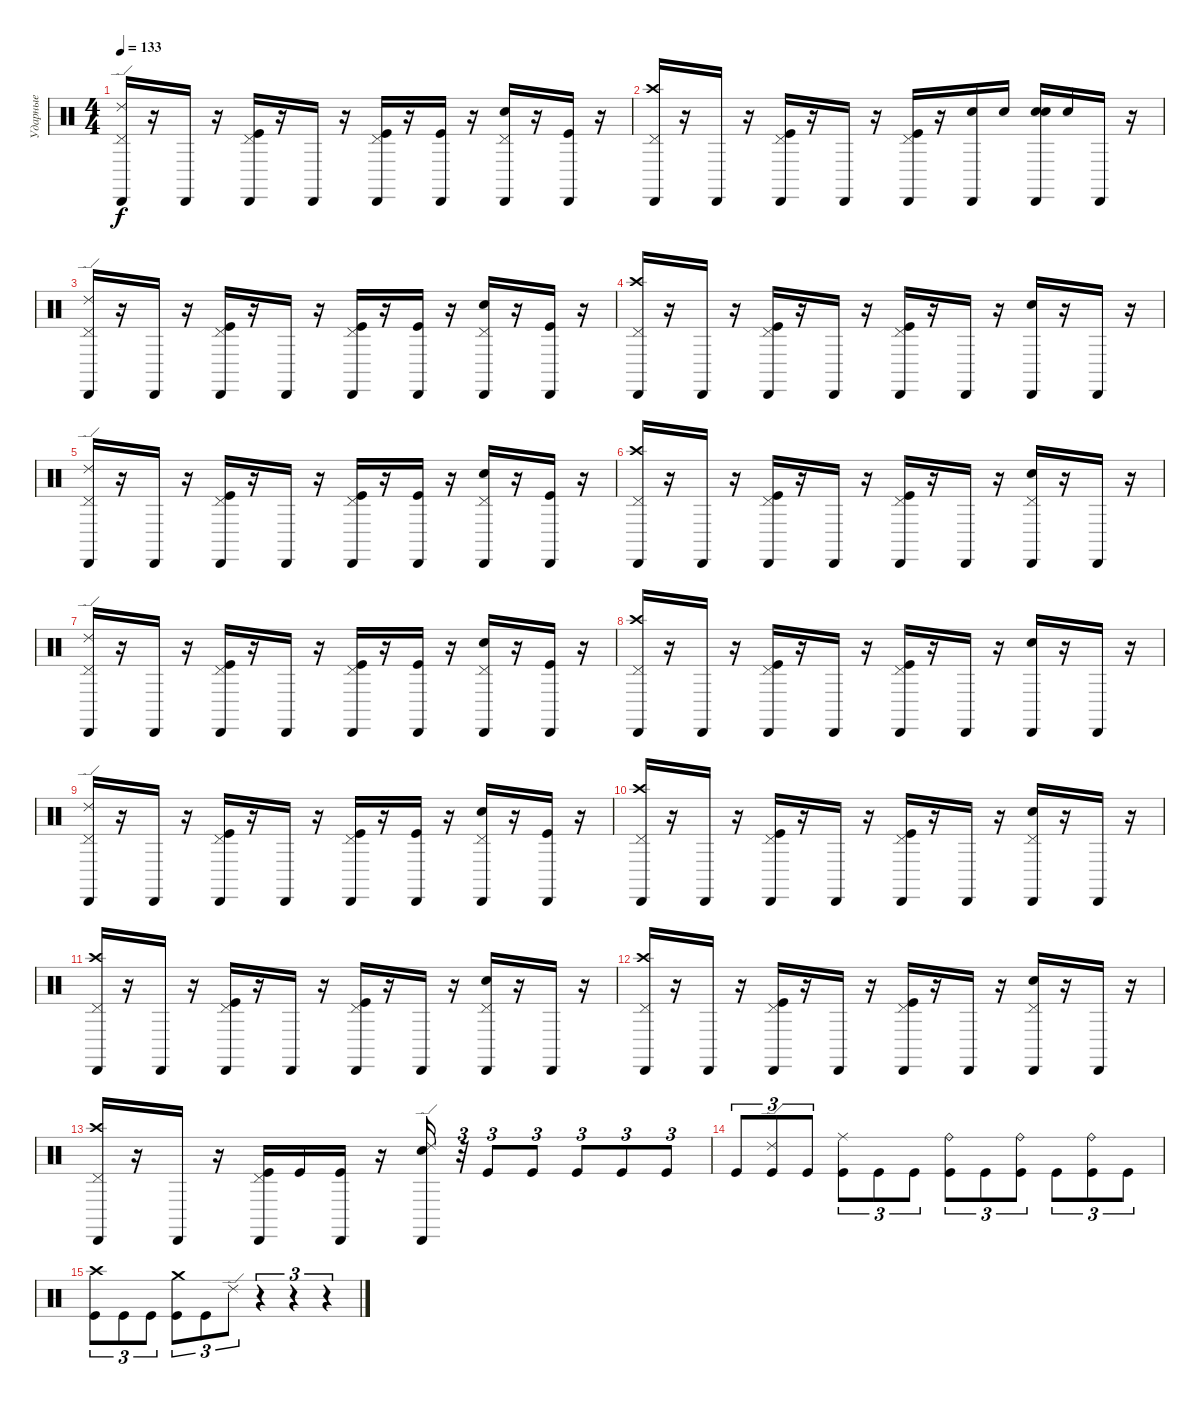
\track ("Ударные" "Ударные") {instrument percussion}
\staff {score}
\articulation defaults
\ts (4 4)
\tempo 133
\clef neutral
\ks c
("Cabasa (hit)" "Pedal Hi-Hat (hit)" "Ride (edge) 2").16{dy f} r.16 "Cabasa (hit)".16 r.16 ("Cabasa (hit)" "Pedal Hi-Hat (hit)" "Kick (hit)").16 r.16 "Cabasa (hit)".16 r.16 ("Cabasa (hit)" "Pedal Hi-Hat (hit)" "Kick (hit)").16 r.16 ("Cabasa (hit)" "Kick (hit)").16 r.16 ("Cabasa (hit)" "Pedal Hi-Hat (hit)" "Snare (hit) 2").16 r.16 ("Cabasa (hit)" "Kick (hit)").16 r.16 |
("Cabasa (hit)" "Pedal Hi-Hat (hit)" "Crash high (hit)").16 r.16 "Cabasa (hit)".16 r.16 ("Cabasa (hit)" "Pedal Hi-Hat (hit)" "Kick (hit)").16 r.16 "Cabasa (hit)".16 r.16 ("Cabasa (hit)" "Pedal Hi-Hat (hit)" "Kick (hit)").16 r.16 ("Cabasa (hit)" "Snare (hit) 2").16 "Snare (hit) 2".16 ("Cabasa (hit)" "Snare (hit) 2" "Electric Snare (hit)").16 "Snare (hit) 2".16 "Cabasa (hit)".16 r.16 |
("Cabasa (hit)" "Pedal Hi-Hat (hit)" "Ride (edge) 2").16 r.16 "Cabasa (hit)".16 r.16 ("Cabasa (hit)" "Pedal Hi-Hat (hit)" "Kick (hit)").16 r.16 "Cabasa (hit)".16 r.16 ("Cabasa (hit)" "Pedal Hi-Hat (hit)" "Kick (hit)").16 r.16 ("Cabasa (hit)" "Kick (hit)").16 r.16 ("Cabasa (hit)" "Pedal Hi-Hat (hit)" "Snare (hit) 2").16 r.16 ("Cabasa (hit)" "Kick (hit)").16 r.16 |
("Cabasa (hit)" "Pedal Hi-Hat (hit)" "Crash high (hit)").16 r.16 "Cabasa (hit)".16 r.16 ("Cabasa (hit)" "Pedal Hi-Hat (hit)" "Kick (hit)").16 r.16 "Cabasa (hit)".16 r.16 ("Cabasa (hit)" "Pedal Hi-Hat (hit)" "Kick (hit)").16 r.16 "Cabasa (hit)".16 r.16 ("Cabasa (hit)" "Electric Snare (hit)").16 r.16 "Cabasa (hit)".16 r.16 |
("Cabasa (hit)" "Pedal Hi-Hat (hit)" "Ride (edge) 2").16 r.16 "Cabasa (hit)".16 r.16 ("Cabasa (hit)" "Pedal Hi-Hat (hit)" "Kick (hit)").16 r.16 "Cabasa (hit)".16 r.16 ("Cabasa (hit)" "Pedal Hi-Hat (hit)" "Kick (hit)").16 r.16 ("Cabasa (hit)" "Kick (hit)").16 r.16 ("Cabasa (hit)" "Pedal Hi-Hat (hit)" "Snare (hit) 2").16 r.16 ("Cabasa (hit)" "Kick (hit)").16 r.16 |
("Cabasa (hit)" "Pedal Hi-Hat (hit)" "Crash high (hit)").16 r.16 "Cabasa (hit)".16 r.16 ("Cabasa (hit)" "Pedal Hi-Hat (hit)" "Kick (hit)").16 r.16 "Cabasa (hit)".16 r.16 ("Cabasa (hit)" "Pedal Hi-Hat (hit)" "Kick (hit)").16 r.16 "Cabasa (hit)".16 r.16 ("Cabasa (hit)" "Pedal Hi-Hat (hit)" "Electric Snare (hit)").16 r.16 "Cabasa (hit)".16 r.16 |
("Cabasa (hit)" "Pedal Hi-Hat (hit)" "Ride (edge) 2").16 r.16 "Cabasa (hit)".16 r.16 ("Cabasa (hit)" "Pedal Hi-Hat (hit)" "Kick (hit)").16 r.16 "Cabasa (hit)".16 r.16 ("Cabasa (hit)" "Pedal Hi-Hat (hit)" "Kick (hit)").16 r.16 ("Cabasa (hit)" "Kick (hit)").16 r.16 ("Cabasa (hit)" "Pedal Hi-Hat (hit)" "Snare (hit) 2").16 r.16 ("Cabasa (hit)" "Kick (hit)").16 r.16 |
("Cabasa (hit)" "Pedal Hi-Hat (hit)" "Crash high (hit)").16 r.16 "Cabasa (hit)".16 r.16 ("Cabasa (hit)" "Pedal Hi-Hat (hit)" "Kick (hit)").16 r.16 "Cabasa (hit)".16 r.16 ("Cabasa (hit)" "Pedal Hi-Hat (hit)" "Kick (hit)").16 r.16 "Cabasa (hit)".16 r.16 ("Cabasa (hit)" "Electric Snare (hit)").16 r.16 "Cabasa (hit)".16 r.16 |
("Cabasa (hit)" "Pedal Hi-Hat (hit)" "Ride (edge) 2").16 r.16 "Cabasa (hit)".16 r.16 ("Cabasa (hit)" "Pedal Hi-Hat (hit)" "Kick (hit)").16 r.16 "Cabasa (hit)".16 r.16 ("Cabasa (hit)" "Pedal Hi-Hat (hit)" "Kick (hit)").16 r.16 ("Cabasa (hit)" "Kick (hit)").16 r.16 ("Cabasa (hit)" "Pedal Hi-Hat (hit)" "Snare (hit) 2").16 r.16 ("Cabasa (hit)" "Kick (hit)").16 r.16 |
("Cabasa (hit)" "Pedal Hi-Hat (hit)" "Crash high (hit)").16 r.16 "Cabasa (hit)".16 r.16 ("Cabasa (hit)" "Pedal Hi-Hat (hit)" "Kick (hit)").16 r.16 "Cabasa (hit)".16 r.16 ("Cabasa (hit)" "Pedal Hi-Hat (hit)" "Kick (hit)").16 r.16 "Cabasa (hit)".16 r.16 ("Cabasa (hit)" "Pedal Hi-Hat (hit)" "Electric Snare (hit)").16 r.16 "Cabasa (hit)".16 r.16 |
("Cabasa (hit)" "Pedal Hi-Hat (hit)" "Crash high (hit)").16 r.16 "Cabasa (hit)".16 r.16 ("Cabasa (hit)" "Pedal Hi-Hat (hit)" "Kick (hit)").16 r.16 "Cabasa (hit)".16 r.16 ("Cabasa (hit)" "Pedal Hi-Hat (hit)" "Kick (hit)").16 r.16 "Cabasa (hit)".16 r.16 ("Cabasa (hit)" "Pedal Hi-Hat (hit)" "Electric Snare (hit)").16 r.16 "Cabasa (hit)".16 r.16 |
("Cabasa (hit)" "Pedal Hi-Hat (hit)" "Crash high (hit)").16 r.16 "Cabasa (hit)".16 r.16 ("Cabasa (hit)" "Pedal Hi-Hat (hit)" "Kick (hit)").16 r.16 "Cabasa (hit)".16 r.16 ("Cabasa (hit)" "Pedal Hi-Hat (hit)" "Kick (hit)").16 r.16 "Cabasa (hit)".16 r.16 ("Cabasa (hit)" "Pedal Hi-Hat (hit)" "Electric Snare (hit)").16 r.16 "Cabasa (hit)".16 r.16 |
("Cabasa (hit)" "Pedal Hi-Hat (hit)" "Crash high (hit)").16 r.16 "Cabasa (hit)".16 r.16 ("Cabasa (hit)" "Pedal Hi-Hat (hit)" "Kick (hit)").16 "Kick (hit)".16 ("Cabasa (hit)" "Kick (hit)").16 r.16 ("Cabasa (hit)" "Ride (edge) 2" "Snare (hit) 2").16 r.32{tu (3 2)} "Kick (hit)".8{tu (3 2)} "Kick (hit)".8{tu (3 2)} "Kick (hit)".8{tu (3 2)} "Kick (hit)".8{tu (3 2)} "Kick (hit)".8{tu (3 2)} |
"Kick (hit)".8{tu (3 2)} ("Ride (edge) 2" "Kick (hit)").8{tu (3 2)} "Kick (hit)".8{tu (3 2)} ("Kick (hit)" "Ride (middle)").8{tu (3 2)} "Kick (hit)".8{tu (3 2)} "Kick (hit)".8{tu (3 2)} ("Ride (bell)" "Kick (hit)").8{tu (3 2)} "Kick (hit)".8{tu (3 2)} ("Ride (bell)" "Kick (hit)").8{tu (3 2)} "Kick (hit)".8{tu (3 2)} ("Ride (bell)" "Kick (hit)").8{tu (3 2)} "Kick (hit)".8{tu (3 2)} |
("Crash high (hit)" "Kick (hit)").8{tu (3 2)} "Kick (hit)".8{tu (3 2)} "Kick (hit)".8{tu (3 2)} ("Crash medium (hit)" "Kick (hit)").8{tu (3 2)} "Kick (hit)".8{tu (3 2)} "Ride (edge) 2".8{tu (3 2)} r.4{tu (3 2)} r.4{tu (3 2)} r.4{tu (3 2)}
